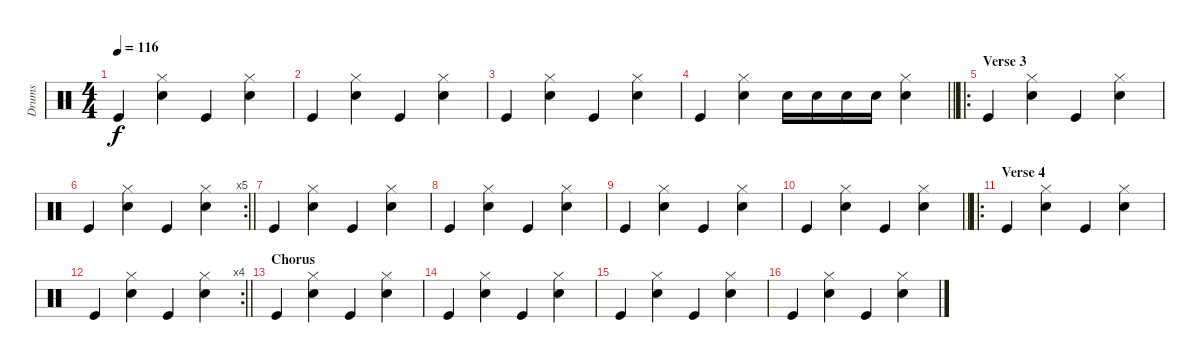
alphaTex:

\track ("Drums" "Drums") {instrument percussion}
\staff {score}
\articulation defaults
\ts (4 4)
\tempo 116
\clef neutral
\ks c "Kick (hit)".4{dy f}
("Hi-Hat (closed)" "Snare (hit) 2").4 "Kick (hit)".4 ("Hi-Hat (closed)" "Snare (hit) 2").4 |
"Kick (hit)".4 ("Hi-Hat (closed)" "Snare (hit) 2").4 "Kick (hit)".4 ("Hi-Hat (closed)" "Snare (hit) 2").4 |
"Kick (hit)".4 ("Hi-Hat (closed)" "Snare (hit) 2").4 "Kick (hit)".4 ("Hi-Hat (closed)" "Snare (hit) 2").4 |
\barLineRight lightlight "Kick (hit)".4
("Hi-Hat (closed)" "Snare (hit) 2").4 "Snare (hit) 2".16 "Snare (hit) 2".16 "Snare (hit) 2".16 "Snare (hit) 2".16 ("Hi-Hat (closed)" "Snare (hit) 2").4 |
\ro
\section ("" "Verse 3")
"Kick (hit)".4 ("Hi-Hat (closed)" "Snare (hit) 2").4 "Kick (hit)".4 ("Hi-Hat (closed)" "Snare (hit) 2").4 |
\rc 5
\barLineRight lightlight "Kick (hit)".4
("Hi-Hat (closed)" "Snare (hit) 2").4 "Kick (hit)".4 ("Hi-Hat (closed)" "Snare (hit) 2").4 |
"Kick (hit)".4 ("Hi-Hat (closed)" "Snare (hit) 2").4 "Kick (hit)".4 ("Hi-Hat (closed)" "Snare (hit) 2").4 |
"Kick (hit)".4 ("Hi-Hat (closed)" "Snare (hit) 2").4 "Kick (hit)".4 ("Hi-Hat (closed)" "Snare (hit) 2").4 |
"Kick (hit)".4 ("Hi-Hat (closed)" "Snare (hit) 2").4 "Kick (hit)".4 ("Hi-Hat (closed)" "Snare (hit) 2").4 |
\barLineRight lightlight "Kick (hit)".4
("Hi-Hat (closed)" "Snare (hit) 2").4 "Kick (hit)".4 ("Hi-Hat (closed)" "Snare (hit) 2").4 |
\ro
\section ("" "Verse 4")
"Kick (hit)".4 ("Hi-Hat (closed)" "Snare (hit) 2").4 "Kick (hit)".4 ("Hi-Hat (closed)" "Snare (hit) 2").4 |
\rc 4
\barLineRight lightlight "Kick (hit)".4
("Hi-Hat (closed)" "Snare (hit) 2").4 "Kick (hit)".4 ("Hi-Hat (closed)" "Snare (hit) 2").4 |
\section ("" "Chorus")
"Kick (hit)".4 ("Hi-Hat (closed)" "Snare (hit) 2").4 "Kick (hit)".4 ("Hi-Hat (closed)" "Snare (hit) 2").4 |
"Kick (hit)".4 ("Hi-Hat (closed)" "Snare (hit) 2").4 "Kick (hit)".4 ("Hi-Hat (closed)" "Snare (hit) 2").4 |
"Kick (hit)".4 ("Hi-Hat (closed)" "Snare (hit) 2").4 "Kick (hit)".4 ("Hi-Hat (closed)" "Snare (hit) 2").4 |
"Kick (hit)".4 ("Hi-Hat (closed)" "Snare (hit) 2").4 "Kick (hit)".4 ("Hi-Hat (closed)" "Snare (hit) 2").4
